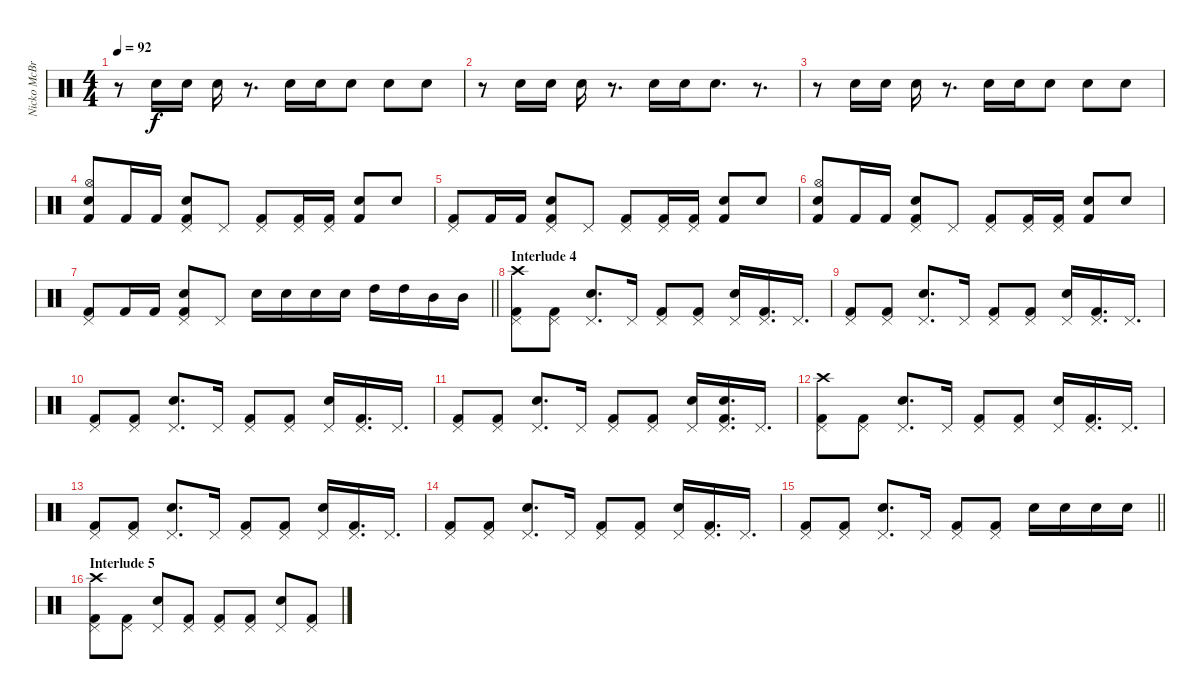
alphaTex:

\track ("Nicko McBrain" "Nicko McBr") {instrument percussion}
\staff {score}
\articulation defaults
\ts (4 4)
\tempo 92
\clef neutral
\ks c
r.8{dy f} "Electric Snare (hit)".16 "Electric Snare (hit)".16 "Electric Snare (hit)".16 r.8{d} "Electric Snare (hit)".16 "Electric Snare (hit)".16 "Electric Snare (hit)".8 "Electric Snare (hit)".8 "Electric Snare (hit)".8 |
r.8 "Electric Snare (hit)".16 "Electric Snare (hit)".16 "Electric Snare (hit)".16 r.8{d} "Electric Snare (hit)".16 "Electric Snare (hit)".16 "Electric Snare (hit)".8{d} r.8{d} |
r.8 "Electric Snare (hit)".16 "Electric Snare (hit)".16 "Electric Snare (hit)".16 r.8{d} "Electric Snare (hit)".16 "Electric Snare (hit)".16 "Electric Snare (hit)".8 "Electric Snare (hit)".8 "Electric Snare (hit)".8 |
("Hi-Hat (open)" "Electric Snare (hit)" "Kick (hit) 2").8 "Kick (hit) 2".16 "Kick (hit) 2".16 ("Electric Snare (hit)" "Pedal Hi-Hat (hit)" "Kick (hit) 2").8 "Pedal Hi-Hat (hit)".8 ("Pedal Hi-Hat (hit)" "Kick (hit) 2").8 ("Pedal Hi-Hat (hit)" "Kick (hit) 2").16 ("Pedal Hi-Hat (hit)" "Kick (hit) 2").16 ("Electric Snare (hit)" "Kick (hit) 2").8 "Electric Snare (hit)".8 |
("Pedal Hi-Hat (hit)" "Kick (hit) 2").8 "Kick (hit) 2".16 "Kick (hit) 2".16 ("Electric Snare (hit)" "Pedal Hi-Hat (hit)" "Kick (hit) 2").8 "Pedal Hi-Hat (hit)".8 ("Pedal Hi-Hat (hit)" "Kick (hit) 2").8 ("Pedal Hi-Hat (hit)" "Kick (hit) 2").16 ("Pedal Hi-Hat (hit)" "Kick (hit) 2").16 ("Electric Snare (hit)" "Kick (hit) 2").8 "Electric Snare (hit)".8 |
("Hi-Hat (open)" "Electric Snare (hit)" "Kick (hit) 2").8 "Kick (hit) 2".16 "Kick (hit) 2".16 ("Electric Snare (hit)" "Pedal Hi-Hat (hit)" "Kick (hit) 2").8 "Pedal Hi-Hat (hit)".8 ("Pedal Hi-Hat (hit)" "Kick (hit) 2").8 ("Pedal Hi-Hat (hit)" "Kick (hit) 2").16 ("Pedal Hi-Hat (hit)" "Kick (hit) 2").16 ("Electric Snare (hit)" "Kick (hit) 2").8 "Electric Snare (hit)".8 |
\barLineRight lightlight
("Pedal Hi-Hat (hit)" "Kick (hit) 2").8 "Kick (hit) 2".16 "Kick (hit) 2".16 ("Electric Snare (hit)" "Pedal Hi-Hat (hit)" "Kick (hit) 2").8 "Pedal Hi-Hat (hit)".8 "Electric Snare (hit)".16 "Electric Snare (hit)".16 "Electric Snare (hit)".16 "Electric Snare (hit)".16 "High Tom (hit)".16 "High Tom (hit)".16 "Mid Tom (hit)".16 "Mid Tom (hit)".16 |
\section ("" "Interlude 4")
("Pedal Hi-Hat (hit)" "Crash high (hit)" "Kick (hit) 2").8 ("Pedal Hi-Hat (hit)" "Kick (hit) 2").8 ("Electric Snare (hit)" "Pedal Hi-Hat (hit)").8{d} "Pedal Hi-Hat (hit)".16 ("Pedal Hi-Hat (hit)" "Kick (hit) 2").8 ("Pedal Hi-Hat (hit)" "Kick (hit) 2").8 ("Electric Snare (hit)" "Pedal Hi-Hat (hit)").16 ("Pedal Hi-Hat (hit)" "Kick (hit) 2").16{d} "Pedal Hi-Hat (hit)".16{d} |
("Pedal Hi-Hat (hit)" "Kick (hit) 2").8 ("Pedal Hi-Hat (hit)" "Kick (hit) 2").8 ("Electric Snare (hit)" "Pedal Hi-Hat (hit)").8{d} "Pedal Hi-Hat (hit)".16 ("Pedal Hi-Hat (hit)" "Kick (hit) 2").8 ("Pedal Hi-Hat (hit)" "Kick (hit) 2").8 ("Electric Snare (hit)" "Pedal Hi-Hat (hit)").16 ("Pedal Hi-Hat (hit)" "Kick (hit) 2").16{d} "Pedal Hi-Hat (hit)".16{d} |
("Pedal Hi-Hat (hit)" "Kick (hit) 2").8 ("Pedal Hi-Hat (hit)" "Kick (hit) 2").8 ("Electric Snare (hit)" "Pedal Hi-Hat (hit)").8{d} "Pedal Hi-Hat (hit)".16 ("Pedal Hi-Hat (hit)" "Kick (hit) 2").8 ("Pedal Hi-Hat (hit)" "Kick (hit) 2").8 ("Electric Snare (hit)" "Pedal Hi-Hat (hit)").16 ("Pedal Hi-Hat (hit)" "Kick (hit) 2").16{d} "Pedal Hi-Hat (hit)".16{d} |
("Pedal Hi-Hat (hit)" "Kick (hit) 2").8 ("Pedal Hi-Hat (hit)" "Kick (hit) 2").8 ("Electric Snare (hit)" "Pedal Hi-Hat (hit)").8{d} "Pedal Hi-Hat (hit)".16 ("Pedal Hi-Hat (hit)" "Kick (hit) 2").8 ("Pedal Hi-Hat (hit)" "Kick (hit) 2").8 ("Electric Snare (hit)" "Pedal Hi-Hat (hit)").16 ("Pedal Hi-Hat (hit)" "Electric Snare (hit)" "Kick (hit) 2").16{d} "Pedal Hi-Hat (hit)".16{d} |
("Pedal Hi-Hat (hit)" "Crash high (hit)" "Kick (hit) 2").8 ("Pedal Hi-Hat (hit)" "Kick (hit) 2").8 ("Electric Snare (hit)" "Pedal Hi-Hat (hit)").8{d} "Pedal Hi-Hat (hit)".16 ("Pedal Hi-Hat (hit)" "Kick (hit) 2").8 ("Pedal Hi-Hat (hit)" "Kick (hit) 2").8 ("Electric Snare (hit)" "Pedal Hi-Hat (hit)").16 ("Pedal Hi-Hat (hit)" "Kick (hit) 2").16{d} "Pedal Hi-Hat (hit)".16{d} |
("Pedal Hi-Hat (hit)" "Kick (hit) 2").8 ("Pedal Hi-Hat (hit)" "Kick (hit) 2").8 ("Electric Snare (hit)" "Pedal Hi-Hat (hit)").8{d} "Pedal Hi-Hat (hit)".16 ("Pedal Hi-Hat (hit)" "Kick (hit) 2").8 ("Pedal Hi-Hat (hit)" "Kick (hit) 2").8 ("Electric Snare (hit)" "Pedal Hi-Hat (hit)").16 ("Pedal Hi-Hat (hit)" "Kick (hit) 2").16{d} "Pedal Hi-Hat (hit)".16{d} |
("Pedal Hi-Hat (hit)" "Kick (hit) 2").8 ("Pedal Hi-Hat (hit)" "Kick (hit) 2").8 ("Electric Snare (hit)" "Pedal Hi-Hat (hit)").8{d} "Pedal Hi-Hat (hit)".16 ("Pedal Hi-Hat (hit)" "Kick (hit) 2").8 ("Pedal Hi-Hat (hit)" "Kick (hit) 2").8 ("Electric Snare (hit)" "Pedal Hi-Hat (hit)").16 ("Pedal Hi-Hat (hit)" "Kick (hit) 2").16{d} "Pedal Hi-Hat (hit)".16{d} |
\barLineRight lightlight
("Pedal Hi-Hat (hit)" "Kick (hit) 2").8 ("Pedal Hi-Hat (hit)" "Kick (hit) 2").8 ("Electric Snare (hit)" "Pedal Hi-Hat (hit)").8{d} "Pedal Hi-Hat (hit)".16 ("Pedal Hi-Hat (hit)" "Kick (hit) 2").8 ("Pedal Hi-Hat (hit)" "Kick (hit) 2").8 "Electric Snare (hit)".16 "Electric Snare (hit)".16 "Electric Snare (hit)".16 "Electric Snare (hit)".16 |
\section ("" "Interlude 5")
("Pedal Hi-Hat (hit)" "Crash high (hit)" "Kick (hit) 2").8 ("Pedal Hi-Hat (hit)" "Kick (hit) 2").8 ("Electric Snare (hit)" "Pedal Hi-Hat (hit)").8 ("Pedal Hi-Hat (hit)" "Kick (hit) 2").8 ("Pedal Hi-Hat (hit)" "Kick (hit) 2").8 ("Pedal Hi-Hat (hit)" "Kick (hit) 2").8 ("Electric Snare (hit)" "Pedal Hi-Hat (hit)").8 ("Pedal Hi-Hat (hit)" "Kick (hit) 2").8
